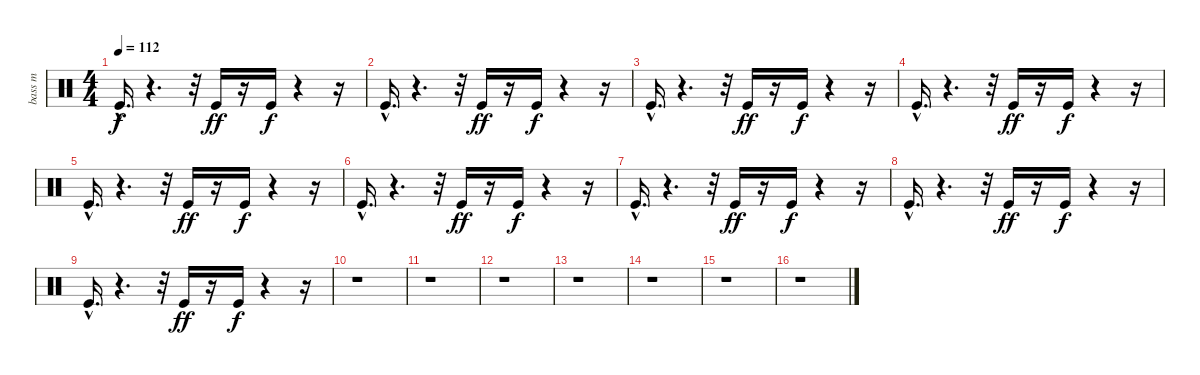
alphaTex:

\track ("bass m" "bass m") {instrument percussion}
\staff {score}
\articulation defaults
\ts (4 4)
\tempo 112
\clef neutral
\ks c "Kick (hit)"{hac}.16{d dy f}
r.4{d} r.32 "Kick (hit)".16{dy ff} r.16 "Kick (hit)".16{dy f} r.4 r.16 |
"Kick (hit)"{hac}.16{d} r.4{d} r.32 "Kick (hit)".16{dy ff} r.16 "Kick (hit)".16{dy f} r.4 r.16 |
"Kick (hit)"{hac}.16{d} r.4{d} r.32 "Kick (hit)".16{dy ff} r.16 "Kick (hit)".16{dy f} r.4 r.16 |
"Kick (hit)"{hac}.16{d} r.4{d} r.32 "Kick (hit)".16{dy ff} r.16 "Kick (hit)".16{dy f} r.4 r.16 |
"Kick (hit)"{hac}.16{d} r.4{d} r.32 "Kick (hit)".16{dy ff} r.16 "Kick (hit)".16{dy f} r.4 r.16 |
"Kick (hit)"{hac}.16{d} r.4{d} r.32 "Kick (hit)".16{dy ff} r.16 "Kick (hit)".16{dy f} r.4 r.16 |
"Kick (hit)"{hac}.16{d} r.4{d} r.32 "Kick (hit)".16{dy ff} r.16 "Kick (hit)".16{dy f} r.4 r.16 |
"Kick (hit)"{hac}.16{d} r.4{d} r.32 "Kick (hit)".16{dy ff} r.16 "Kick (hit)".16{dy f} r.4 r.16 |
"Kick (hit)"{hac}.16{d} r.4{d} r.32 "Kick (hit)".16{dy ff} r.16 "Kick (hit)".16{dy f} r.4 r.16 |
r.1 |
r.1 |
r.1 |
r.1 |
r.1 |
r.1 |
r.1
